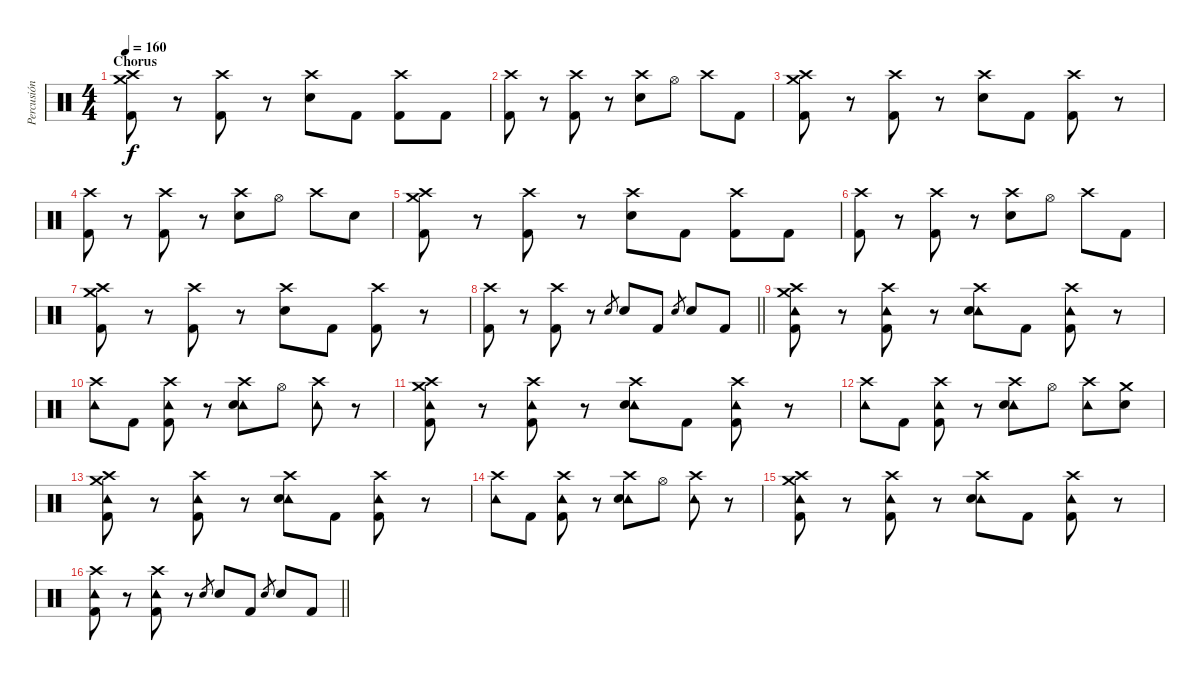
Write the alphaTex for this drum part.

\track ("Percusión" "Percusión") {instrument percussion}
\staff {score}
\articulation defaults
\ts (4 4)
\section ("" "Chorus")
\tempo 160
\clef neutral
\ks c
("Crash medium (hit)" "Crash high (hit)" "Kick (hit) 2").8{dy f} r.8 ("Crash high (hit)" "Kick (hit) 2").8 r.8 ("Crash high (hit)" "Electric Snare (hit)").8 "Kick (hit) 2".8 ("Crash high (hit)" "Kick (hit) 2").8 "Kick (hit) 2".8 |
("Crash high (hit)" "Kick (hit) 2").8 r.8 ("Crash high (hit)" "Kick (hit) 2").8 r.8 ("Crash high (hit)" "Electric Snare (hit)").8 "Hi-Hat (open)".8 "Crash high (hit)".8 "Kick (hit) 2".8 |
("Crash medium (hit)" "Crash high (hit)" "Kick (hit) 2").8 r.8 ("Crash high (hit)" "Kick (hit) 2").8 r.8 ("Crash high (hit)" "Electric Snare (hit)").8 "Kick (hit) 2".8 ("Crash high (hit)" "Kick (hit) 2").8 r.8 |
("Crash high (hit)" "Kick (hit) 2").8 r.8 ("Crash high (hit)" "Kick (hit) 2").8 r.8 ("Crash high (hit)" "Electric Snare (hit)").8 "Hi-Hat (open)".8 "Crash high (hit)".8 "Electric Snare (hit)".8 |
("Crash medium (hit)" "Crash high (hit)" "Kick (hit) 2").8 r.8 ("Crash high (hit)" "Kick (hit) 2").8 r.8 ("Crash high (hit)" "Electric Snare (hit)").8 "Kick (hit) 2".8 ("Crash high (hit)" "Kick (hit) 2").8 "Kick (hit) 2".8 |
("Crash high (hit)" "Kick (hit) 2").8 r.8 ("Crash high (hit)" "Kick (hit) 2").8 r.8 ("Crash high (hit)" "Electric Snare (hit)").8 "Hi-Hat (open)".8 "Crash high (hit)".8 "Kick (hit) 2".8 |
("Crash medium (hit)" "Crash high (hit)" "Kick (hit) 2").8 r.8 ("Crash high (hit)" "Kick (hit) 2").8 r.8 ("Crash high (hit)" "Electric Snare (hit)").8 "Kick (hit) 2".8 ("Crash high (hit)" "Kick (hit) 2").8 r.8 |
\barLineRight lightlight
("Crash high (hit)" "Kick (hit) 2").8 r.8 ("Crash high (hit)" "Kick (hit) 2").8 r.8 "Electric Snare (hit)".8{gr} "Electric Snare (hit)".8 "Kick (hit) 2".8 "Electric Snare (hit)".8{gr} "Electric Snare (hit)".8 "Kick (hit) 2".8 |
("Tambourine (hit)" "Crash medium (hit)" "Crash high (hit)" "Kick (hit) 2").8 r.8 ("Tambourine (hit)" "Crash high (hit)" "Kick (hit) 2").8 r.8 ("Tambourine (hit)" "Crash high (hit)" "Electric Snare (hit)").8 "Kick (hit) 2".8 ("Tambourine (hit)" "Crash high (hit)" "Kick (hit) 2").8 r.8 |
("Tambourine (hit)" "Crash high (hit)").8 "Kick (hit) 2".8 ("Tambourine (hit)" "Crash high (hit)" "Kick (hit) 2").8 r.8 ("Tambourine (hit)" "Crash high (hit)" "Electric Snare (hit)").8 "Hi-Hat (open)".8 ("Tambourine (hit)" "Crash high (hit)").8 r.8 |
("Tambourine (hit)" "Crash medium (hit)" "Crash high (hit)" "Kick (hit) 2").8 r.8 ("Tambourine (hit)" "Crash high (hit)" "Kick (hit) 2").8 r.8 ("Tambourine (hit)" "Crash high (hit)" "Electric Snare (hit)").8 "Kick (hit) 2".8 ("Tambourine (hit)" "Crash high (hit)" "Kick (hit) 2").8 r.8 |
("Tambourine (hit)" "Crash high (hit)").8 "Kick (hit) 2".8 ("Tambourine (hit)" "Crash high (hit)" "Kick (hit) 2").8 r.8 ("Tambourine (hit)" "Crash high (hit)" "Electric Snare (hit)").8 "Hi-Hat (open)".8 ("Tambourine (hit)" "Crash high (hit)").8 ("Crash medium (hit)" "Electric Snare (hit)").8 |
("Tambourine (hit)" "Crash medium (hit)" "Crash high (hit)" "Kick (hit) 2").8 r.8 ("Tambourine (hit)" "Crash high (hit)" "Kick (hit) 2").8 r.8 ("Tambourine (hit)" "Crash high (hit)" "Electric Snare (hit)").8 "Kick (hit) 2".8 ("Tambourine (hit)" "Crash high (hit)" "Kick (hit) 2").8 r.8 |
("Tambourine (hit)" "Crash high (hit)").8 "Kick (hit) 2".8 ("Tambourine (hit)" "Crash high (hit)" "Kick (hit) 2").8 r.8 ("Tambourine (hit)" "Crash high (hit)" "Electric Snare (hit)").8 "Hi-Hat (open)".8 ("Tambourine (hit)" "Crash high (hit)").8 r.8 |
("Tambourine (hit)" "Crash medium (hit)" "Crash high (hit)" "Kick (hit) 2").8 r.8 ("Tambourine (hit)" "Crash high (hit)" "Kick (hit) 2").8 r.8 ("Tambourine (hit)" "Crash high (hit)" "Electric Snare (hit)").8 "Kick (hit) 2".8 ("Tambourine (hit)" "Crash high (hit)" "Kick (hit) 2").8 r.8 |
\barLineRight lightlight
("Tambourine (hit)" "Crash high (hit)" "Kick (hit) 2").8 r.8 ("Tambourine (hit)" "Crash high (hit)" "Kick (hit) 2").8 r.8 "Electric Snare (hit)".8{gr} "Electric Snare (hit)".8 "Kick (hit) 2".8 "Electric Snare (hit)".8{gr} "Electric Snare (hit)".8 "Kick (hit) 2".8
